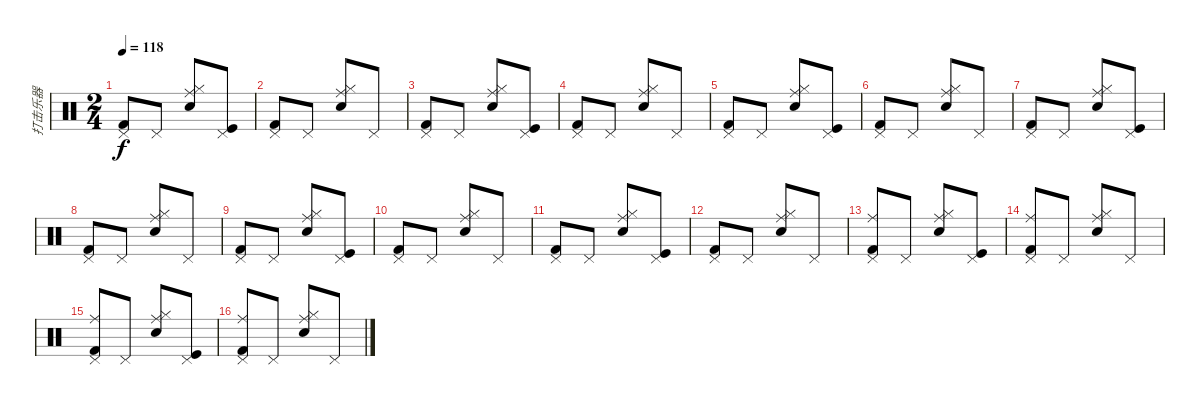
\track ("打击乐器" "打击乐器") {instrument percussion}
\staff {score}
\articulation defaults
\ts (2 4)
\tempo 118
\clef neutral
\ks c
("Pedal Hi-Hat (hit)" "Kick (hit) 2").8{dy f} "Pedal Hi-Hat (hit)".8 ("Ride (middle)" "Hi-Hat (closed)" "Snare (hit) 2").8 ("Pedal Hi-Hat (hit)" "Kick (hit)").8 |
("Pedal Hi-Hat (hit)" "Kick (hit) 2").8 "Pedal Hi-Hat (hit)".8 ("Ride (middle)" "Hi-Hat (closed)" "Snare (hit) 2").8 "Pedal Hi-Hat (hit)".8 |
("Pedal Hi-Hat (hit)" "Kick (hit) 2").8 "Pedal Hi-Hat (hit)".8 ("Ride (middle)" "Hi-Hat (closed)" "Snare (hit) 2").8 ("Pedal Hi-Hat (hit)" "Kick (hit)").8 |
("Pedal Hi-Hat (hit)" "Kick (hit) 2").8 "Pedal Hi-Hat (hit)".8 ("Ride (middle)" "Hi-Hat (closed)" "Snare (hit) 2").8 "Pedal Hi-Hat (hit)".8 |
("Pedal Hi-Hat (hit)" "Kick (hit) 2").8 "Pedal Hi-Hat (hit)".8 ("Ride (middle)" "Hi-Hat (closed)" "Snare (hit) 2").8 ("Pedal Hi-Hat (hit)" "Kick (hit)").8 |
("Pedal Hi-Hat (hit)" "Kick (hit) 2").8 "Pedal Hi-Hat (hit)".8 ("Ride (middle)" "Hi-Hat (closed)" "Snare (hit) 2").8 "Pedal Hi-Hat (hit)".8 |
("Pedal Hi-Hat (hit)" "Kick (hit) 2").8 "Pedal Hi-Hat (hit)".8 ("Ride (middle)" "Hi-Hat (closed)" "Snare (hit) 2").8 ("Pedal Hi-Hat (hit)" "Kick (hit)").8 |
("Pedal Hi-Hat (hit)" "Kick (hit) 2").8 "Pedal Hi-Hat (hit)".8 ("Ride (middle)" "Hi-Hat (closed)" "Snare (hit) 2").8 "Pedal Hi-Hat (hit)".8 |
("Pedal Hi-Hat (hit)" "Kick (hit) 2").8 "Pedal Hi-Hat (hit)".8 ("Ride (middle)" "Hi-Hat (closed)" "Snare (hit) 2").8 ("Pedal Hi-Hat (hit)" "Kick (hit)").8 |
("Pedal Hi-Hat (hit)" "Kick (hit) 2").8 "Pedal Hi-Hat (hit)".8 ("Ride (middle)" "Hi-Hat (closed)" "Snare (hit) 2").8 "Pedal Hi-Hat (hit)".8 |
("Pedal Hi-Hat (hit)" "Kick (hit) 2").8 "Pedal Hi-Hat (hit)".8 ("Ride (middle)" "Hi-Hat (closed)" "Snare (hit) 2").8 ("Pedal Hi-Hat (hit)" "Kick (hit)").8 |
("Pedal Hi-Hat (hit)" "Kick (hit) 2").8 "Pedal Hi-Hat (hit)".8 ("Ride (middle)" "Hi-Hat (closed)" "Snare (hit) 2").8 "Pedal Hi-Hat (hit)".8 |
("Pedal Hi-Hat (hit)" "Ride (middle)" "Kick (hit) 2").8 "Pedal Hi-Hat (hit)".8 ("Ride (middle)" "Hi-Hat (closed)" "Snare (hit) 2").8 ("Pedal Hi-Hat (hit)" "Kick (hit)").8 |
("Pedal Hi-Hat (hit)" "Ride (middle)" "Kick (hit) 2").8 "Pedal Hi-Hat (hit)".8 ("Ride (middle)" "Hi-Hat (closed)" "Snare (hit) 2").8 "Pedal Hi-Hat (hit)".8 |
("Pedal Hi-Hat (hit)" "Ride (middle)" "Kick (hit) 2").8 "Pedal Hi-Hat (hit)".8 ("Ride (middle)" "Hi-Hat (closed)" "Snare (hit) 2").8 ("Pedal Hi-Hat (hit)" "Kick (hit)").8 |
("Pedal Hi-Hat (hit)" "Ride (middle)" "Kick (hit) 2").8 "Pedal Hi-Hat (hit)".8 ("Ride (middle)" "Hi-Hat (closed)" "Snare (hit) 2").8 "Pedal Hi-Hat (hit)".8
